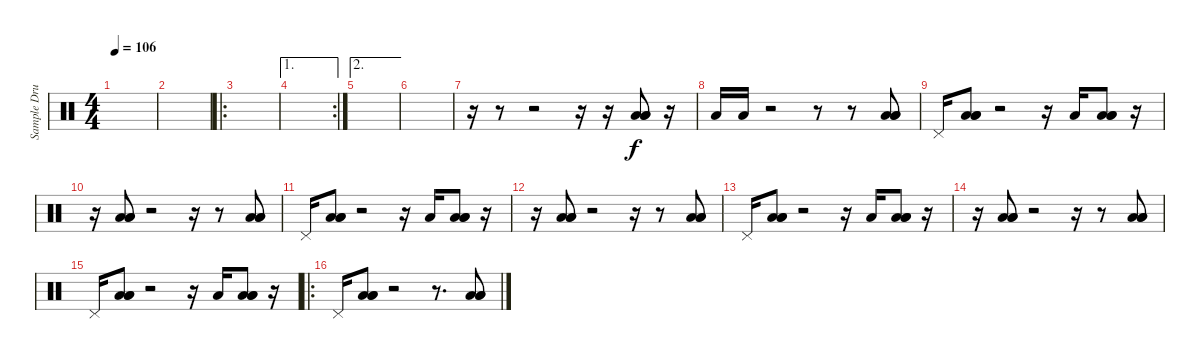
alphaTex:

\track ("Sample Drums(Lethal)" "Sample Dru") {instrument percussion}
\staff {score}
\articulation defaults
\ts (4 4)
\tempo 106
\clef neutral
\ks c
|
|
\ro
|
\ae 1
\rc 2
|
\ae 2
|
|
r.16 r.8 r.2 r.16 r.16 ("Low Floor Tom (hit)" "Low Floor Tom (hit)" "Low Floor Tom (hit)").8 r.16 |
"Low Floor Tom (hit)".16 "Low Floor Tom (hit)".16 r.2 r.8 r.8 ("Low Floor Tom (hit)" "Low Floor Tom (hit)" "Low Floor Tom (hit)").8 |
"Pedal Hi-Hat (hit)".16 ("Low Floor Tom (hit)" "Low Floor Tom (hit)" "Low Floor Tom (hit)").8 r.2 r.16 "Low Floor Tom (hit)".16 ("Low Floor Tom (hit)" "Low Floor Tom (hit)" "Low Floor Tom (hit)").8 r.16 |
r.16 ("Low Floor Tom (hit)" "Low Floor Tom (hit)" "Low Floor Tom (hit)").8 r.2 r.16 r.8 ("Low Floor Tom (hit)" "Low Floor Tom (hit)" "Low Floor Tom (hit)").8 |
"Pedal Hi-Hat (hit)".16 ("Low Floor Tom (hit)" "Low Floor Tom (hit)" "Low Floor Tom (hit)").8 r.2 r.16 "Low Floor Tom (hit)".16 ("Low Floor Tom (hit)" "Low Floor Tom (hit)" "Low Floor Tom (hit)").8 r.16 |
r.16 ("Low Floor Tom (hit)" "Low Floor Tom (hit)" "Low Floor Tom (hit)").8 r.2 r.16 r.8 ("Low Floor Tom (hit)" "Low Floor Tom (hit)" "Low Floor Tom (hit)").8 |
"Pedal Hi-Hat (hit)".16 ("Low Floor Tom (hit)" "Low Floor Tom (hit)" "Low Floor Tom (hit)").8 r.2 r.16 "Low Floor Tom (hit)".16 ("Low Floor Tom (hit)" "Low Floor Tom (hit)" "Low Floor Tom (hit)").8 r.16 |
r.16 ("Low Floor Tom (hit)" "Low Floor Tom (hit)" "Low Floor Tom (hit)").8 r.2 r.16 r.8 ("Low Floor Tom (hit)" "Low Floor Tom (hit)" "Low Floor Tom (hit)").8 |
"Pedal Hi-Hat (hit)".16 ("Low Floor Tom (hit)" "Low Floor Tom (hit)" "Low Floor Tom (hit)").8 r.2 r.16 "Low Floor Tom (hit)".16 ("Low Floor Tom (hit)" "Low Floor Tom (hit)" "Low Floor Tom (hit)").8 r.16 |
\ro "Pedal Hi-Hat (hit)".16
("Low Floor Tom (hit)" "Low Floor Tom (hit)" "Low Floor Tom (hit)").8 r.2 r.8{d} ("Low Floor Tom (hit)" "Low Floor Tom (hit)" "Low Floor Tom (hit)").8
